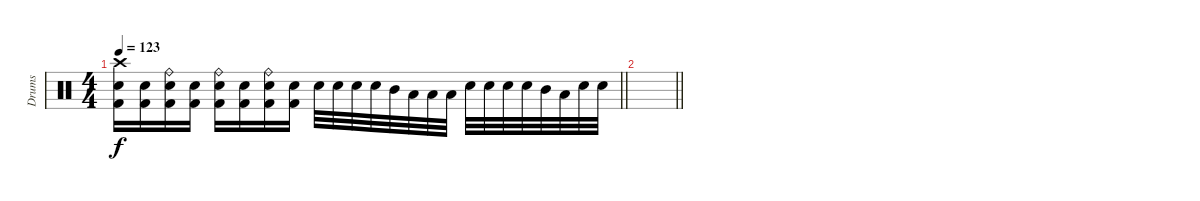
\track ("Drums" "Drums") {instrument percussion}
\staff {score}
\articulation defaults
\ts (4 4)
\tempo 123
\clef neutral
\barLineRight lightlight
\ks c
("Crash high (hit)" "Snare (hit) 2" "Kick (hit) 2").16{dy f} ("Snare (hit) 2" "Kick (hit) 2").16 ("Ride (bell)" "Snare (hit) 2" "Kick (hit) 2").16 ("Snare (hit) 2" "Kick (hit) 2").16 ("Ride (bell)" "Snare (hit) 2" "Kick (hit) 2").16 ("Snare (hit) 2" "Kick (hit) 2").16 ("Ride (bell)" "Snare (hit) 2" "Kick (hit) 2").16 ("Snare (hit) 2" "Kick (hit) 2").16 "Snare (hit) 2".32 "Snare (hit) 2".32 "Snare (hit) 2".32 "Snare (hit) 2".32 "Mid Tom (hit)".32 "Low Tom (hit)".32 "Low Floor Tom (hit)".32 "Low Tom (hit)".32 "Snare (hit) 2".32 "Snare (hit) 2".32 "Snare (hit) 2".32 "Snare (hit) 2".32 "Mid Tom (hit)".32 "Low Tom (hit)".32 "Snare (hit) 2".32 "Snare (hit) 2".32 |
\barLineRight lightlight
